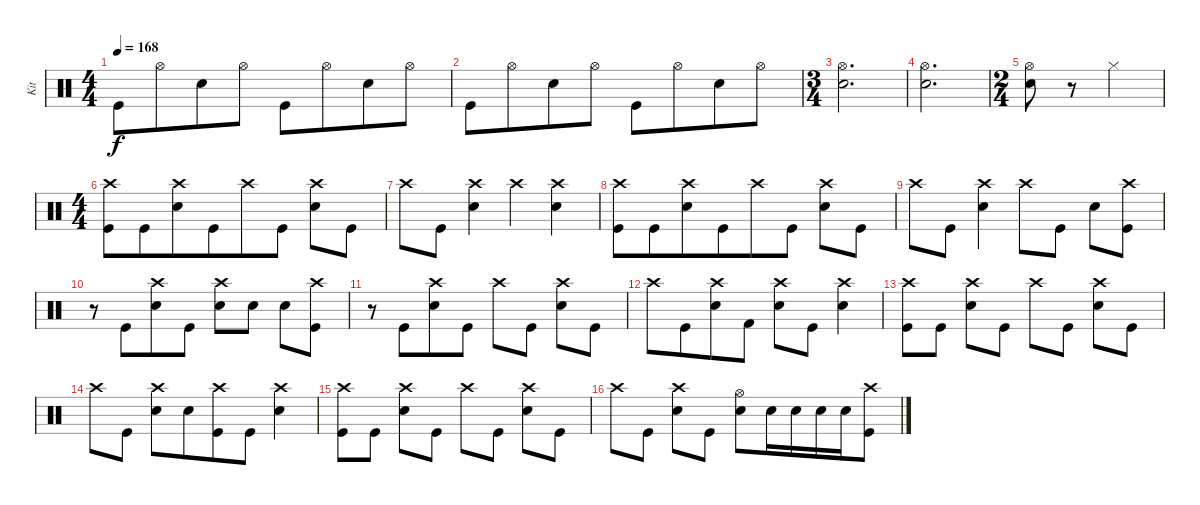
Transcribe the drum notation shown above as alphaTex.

\track ("Kit" "Kit") {instrument percussion}
\staff {score}
\articulation defaults
\ts (4 4)
\tempo 168
\clef neutral
\ks c "Kick (hit)".8{dy f} "Hi-Hat (open)".8{beam merge} "Electric Snare (hit)".8 "Hi-Hat (open)".8 "Kick (hit)".8 "Hi-Hat (open)".8{beam merge} "Electric Snare (hit)".8 "Hi-Hat (open)".8
|
"Kick (hit)".8 "Hi-Hat (open)".8{beam merge} "Electric Snare (hit)".8 "Hi-Hat (open)".8 "Kick (hit)".8 "Hi-Hat (open)".8{beam merge} "Electric Snare (hit)".8 "Hi-Hat (open)".8 |
\ts (3 4)
("Hi-Hat (open)" "Electric Snare (hit)").2{d} |
("Hi-Hat (open)" "Electric Snare (hit)").2{d} |
\ts (2 4)
("Hi-Hat (open)" "Electric Snare (hit)").8 r.8 "Hi-Hat (closed)".4 |
\ts (4 4)
("Crash high (hit)" "Kick (hit)").8 "Kick (hit)".8{beam merge} ("Crash high (hit)" "Electric Snare (hit)").8 "Kick (hit)".8{beam merge} "Crash high (hit)".8 "Kick (hit)".8 ("Crash high (hit)" "Electric Snare (hit)").8 "Kick (hit)".8 |
"Crash high (hit)".8{beam merge} "Kick (hit)".8 ("Crash high (hit)" "Electric Snare (hit)").4{beam merge} "Crash high (hit)".4 ("Crash high (hit)" "Electric Snare (hit)").4 |
("Crash high (hit)" "Kick (hit)").8 "Kick (hit)".8{beam merge} ("Crash high (hit)" "Electric Snare (hit)").8 "Kick (hit)".8{beam merge} "Crash high (hit)".8 "Kick (hit)".8 ("Crash high (hit)" "Electric Snare (hit)").8 "Kick (hit)".8 |
"Crash high (hit)".8{beam merge} "Kick (hit)".8 ("Crash high (hit)" "Electric Snare (hit)").4{beam merge} "Crash high (hit)".8{beam merge} "Kick (hit)".8 "Electric Snare (hit)".8 ("Crash high (hit)" "Kick (hit)").8 |
r.8 "Kick (hit)".8{beam merge} ("Crash high (hit)" "Electric Snare (hit)").8{beam merge} "Kick (hit)".8 ("Crash high (hit)" "Electric Snare (hit)").8 "Electric Snare (hit)".8 "Electric Snare (hit)".8 ("Crash high (hit)" "Kick (hit)").8 |
r.8{beam merge} "Kick (hit)".8{beam merge} ("Crash high (hit)" "Electric Snare (hit)").8 "Kick (hit)".8 "Crash high (hit)".8{beam merge} "Kick (hit)".8 ("Crash high (hit)" "Electric Snare (hit)").8{beam merge} "Kick (hit)".8 |
"Crash high (hit)".8 "Kick (hit)".8{beam merge} ("Crash high (hit)" "Electric Snare (hit)").8 "Kick (hit) 2".8 ("Crash high (hit)" "Electric Snare (hit)").8 "Kick (hit)".8 ("Crash high (hit)" "Electric Snare (hit)").4 |
("Crash high (hit)" "Kick (hit)").8{beam merge} "Kick (hit)".8 ("Crash high (hit)" "Electric Snare (hit)").8 "Kick (hit)".8 "Crash high (hit)".8 "Kick (hit)".8 ("Crash high (hit)" "Electric Snare (hit)").8 "Kick (hit)".8 |
"Crash high (hit)".8 "Kick (hit)".8 ("Crash high (hit)" "Electric Snare (hit)").8 "Electric Snare (hit)".8{beam merge} ("Crash high (hit)" "Kick (hit)").8 "Kick (hit)".8 ("Crash high (hit)" "Electric Snare (hit)").4 |
("Crash high (hit)" "Kick (hit)").8{beam merge} "Kick (hit)".8 ("Crash high (hit)" "Electric Snare (hit)").8 "Kick (hit)".8 "Crash high (hit)".8 "Kick (hit)".8 ("Crash high (hit)" "Electric Snare (hit)").8 "Kick (hit)".8 |
"Crash high (hit)".8 "Kick (hit)".8 ("Crash high (hit)" "Electric Snare (hit)").8 "Kick (hit)".8 ("Hi-Hat (open)" "Electric Snare (hit)").8 "Electric Snare (hit)".16 "Electric Snare (hit)".16{beam merge} "Electric Snare (hit)".16{beam merge} "Electric Snare (hit)".16{beam merge} ("Crash high (hit)" "Kick (hit)").8
